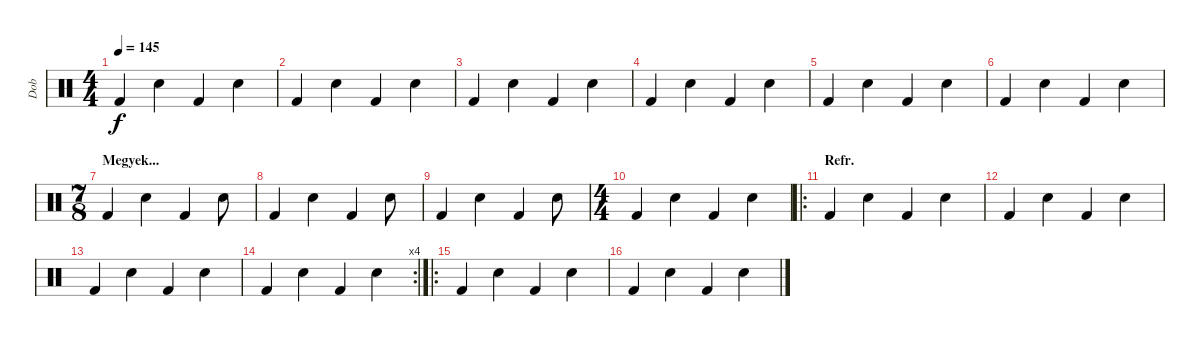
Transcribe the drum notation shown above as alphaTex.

\track ("Dob" "Dob") {instrument percussion}
\staff {score}
\articulation defaults
\ts (4 4)
\tempo 145
\clef neutral
\ks c "Kick (hit) 2".4{dy f} "Electric Snare (hit)".4 "Kick (hit) 2".4 "Electric Snare (hit)".4
|
"Kick (hit) 2".4 "Electric Snare (hit)".4 "Kick (hit) 2".4 "Electric Snare (hit)".4 |
"Kick (hit) 2".4 "Electric Snare (hit)".4 "Kick (hit) 2".4 "Electric Snare (hit)".4 |
"Kick (hit) 2".4 "Electric Snare (hit)".4 "Kick (hit) 2".4 "Electric Snare (hit)".4 |
"Kick (hit) 2".4 "Electric Snare (hit)".4 "Kick (hit) 2".4 "Electric Snare (hit)".4 |
"Kick (hit) 2".4 "Electric Snare (hit)".4 "Kick (hit) 2".4 "Electric Snare (hit)".4 |
\ts (7 8)
\section ("" "Megyek...")
"Kick (hit) 2".4 "Electric Snare (hit)".4 "Kick (hit) 2".4 "Electric Snare (hit)".8 |
"Kick (hit) 2".4 "Electric Snare (hit)".4 "Kick (hit) 2".4 "Electric Snare (hit)".8 |
"Kick (hit) 2".4 "Electric Snare (hit)".4 "Kick (hit) 2".4 "Electric Snare (hit)".8 |
\ts (4 4)
"Kick (hit) 2".4 "Electric Snare (hit)".4 "Kick (hit) 2".4 "Electric Snare (hit)".4 |
\ro
\section ("" "Refr.")
"Kick (hit) 2".4 "Electric Snare (hit)".4 "Kick (hit) 2".4 "Electric Snare (hit)".4 |
"Kick (hit) 2".4 "Electric Snare (hit)".4 "Kick (hit) 2".4 "Electric Snare (hit)".4 |
"Kick (hit) 2".4 "Electric Snare (hit)".4 "Kick (hit) 2".4 "Electric Snare (hit)".4 |
\rc 4 "Kick (hit) 2".4 "Electric Snare (hit)".4 "Kick (hit) 2".4 "Electric Snare (hit)".4
|
\ro "Kick (hit) 2".4 "Electric Snare (hit)".4 "Kick (hit) 2".4 "Electric Snare (hit)".4
|
"Kick (hit) 2".4 "Electric Snare (hit)".4 "Kick (hit) 2".4 "Electric Snare (hit)".4
